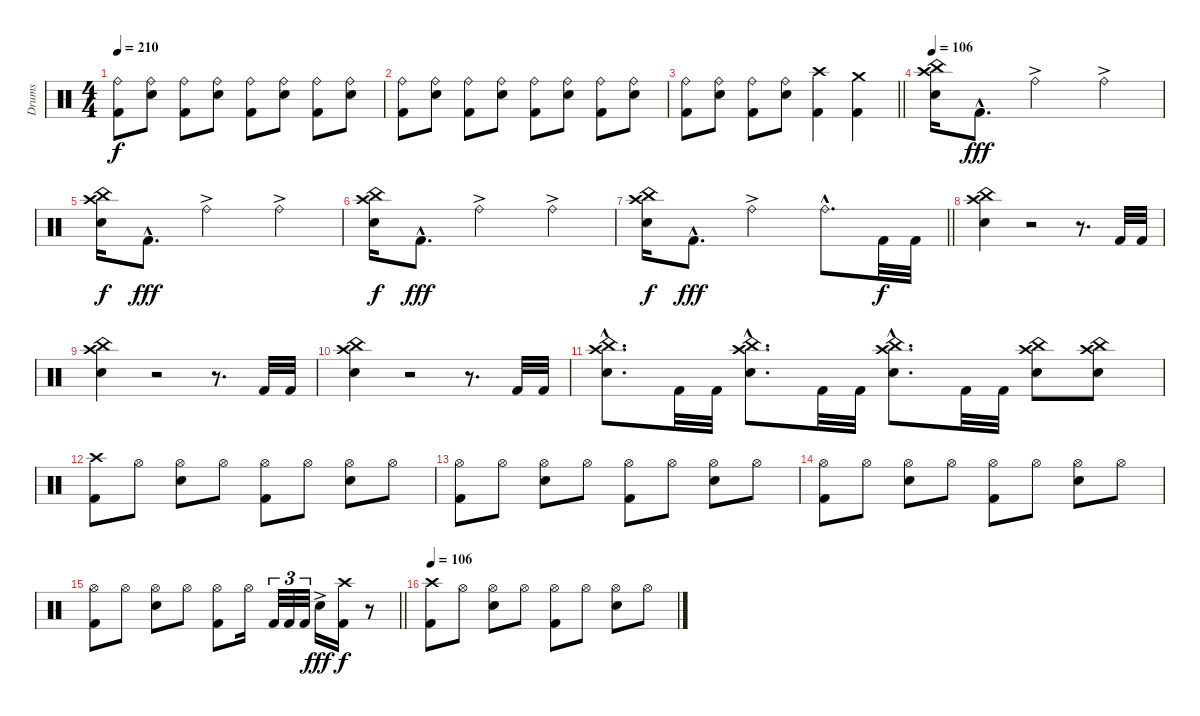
\track ("Drums" "Drums") {instrument percussion}
\staff {score}
\articulation defaults
\ts (4 4)
\tempo 210
\clef neutral
\ks c
("Ride (bell)" "Kick (hit) 2").8{dy f} ("Ride (bell)" "Snare (hit) 2").8 ("Ride (bell)" "Kick (hit) 2").8 ("Ride (bell)" "Snare (hit) 2").8 ("Ride (bell)" "Kick (hit) 2").8 ("Ride (bell)" "Snare (hit) 2").8 ("Ride (bell)" "Kick (hit) 2").8 ("Ride (bell)" "Snare (hit) 2").8 |
("Ride (bell)" "Kick (hit) 2").8 ("Ride (bell)" "Snare (hit) 2").8 ("Ride (bell)" "Kick (hit) 2").8 ("Ride (bell)" "Snare (hit) 2").8 ("Ride (bell)" "Kick (hit) 2").8 ("Ride (bell)" "Snare (hit) 2").8 ("Ride (bell)" "Kick (hit) 2").8 ("Ride (bell)" "Snare (hit) 2").8 |
\barLineRight lightlight
("Ride (bell)" "Kick (hit) 2").8 ("Ride (bell)" "Snare (hit) 2").8 ("Ride (bell)" "Kick (hit) 2").8 ("Ride (bell)" "Snare (hit) 2").8 ("Crash high (hit)" "Kick (hit) 2").4 ("Crash medium (hit)" "Kick (hit) 2").4 |
\tempo 106
("China (hit)" "Crash high (hit)" "Snare (hit) 2").16 "Kick (hit) 2"{hac}.8{d dy fff} "Ride (bell)"{ac}.2 "Ride (bell)"{ac}.4 |
("China (hit)" "Crash high (hit)" "Snare (hit) 2").16{dy f} "Kick (hit) 2"{hac}.8{d dy fff} "Ride (bell)"{ac}.2 "Ride (bell)"{ac}.4 |
("China (hit)" "Crash high (hit)" "Snare (hit) 2").16{dy f} "Kick (hit) 2"{hac}.8{d dy fff} "Ride (bell)"{ac}.2 "Ride (bell)"{ac}.4 |
\barLineRight lightlight
("China (hit)" "Crash high (hit)" "Snare (hit) 2").16{dy f} "Kick (hit) 2"{hac}.8{d dy fff} "Ride (bell)"{ac}.2 "Ride (bell)"{hac}.8{d} "Kick (hit) 2".32{dy f} "Kick (hit) 2".32 |
("China (hit)" "Crash high (hit)" "Snare (hit) 2").4 r.2 r.8{d} "Kick (hit) 2".32 "Kick (hit) 2".32 |
("China (hit)" "Crash high (hit)" "Snare (hit) 2").4 r.2 r.8{d} "Kick (hit) 2".32 "Kick (hit) 2".32 |
("China (hit)" "Crash high (hit)" "Snare (hit) 2").4 r.2 r.8{d} "Kick (hit) 2".32 "Kick (hit) 2".32 |
("China (hit)"{hac} "Crash high (hit)"{hac} "Snare (hit) 2"{hac}).8{d} "Kick (hit) 2".32 "Kick (hit) 2".32 ("China (hit)"{hac} "Crash high (hit)"{hac} "Snare (hit) 2"{hac}).8{d} "Kick (hit) 2".32 "Kick (hit) 2".32 ("China (hit)"{hac} "Crash high (hit)"{hac} "Snare (hit) 2"{hac}).8{d} "Kick (hit) 2".32 "Kick (hit) 2".32 ("China (hit)" "Crash high (hit)" "Snare (hit) 2").8 ("China (hit)" "Crash high (hit)" "Snare (hit) 2").8 |
("Crash high (hit)" "Kick (hit) 2").8 "Hi-Hat (open)".8 ("Hi-Hat (open)" "Snare (hit) 2").8 "Hi-Hat (open)".8 ("Hi-Hat (open)" "Kick (hit) 2").8 "Hi-Hat (open)".8 ("Hi-Hat (open)" "Snare (hit) 2").8 "Hi-Hat (open)".8 |
("Hi-Hat (open)" "Kick (hit) 2").8 "Hi-Hat (open)".8 ("Hi-Hat (open)" "Snare (hit) 2").8 "Hi-Hat (open)".8 ("Hi-Hat (open)" "Kick (hit) 2").8 "Hi-Hat (open)".8 ("Hi-Hat (open)" "Snare (hit) 2").8 "Hi-Hat (open)".8 |
("Hi-Hat (open)" "Kick (hit) 2").8 "Hi-Hat (open)".8 ("Hi-Hat (open)" "Snare (hit) 2").8 "Hi-Hat (open)".8 ("Hi-Hat (open)" "Kick (hit) 2").8 "Hi-Hat (open)".8 ("Hi-Hat (open)" "Snare (hit) 2").8 "Hi-Hat (open)".8 |
\barLineRight lightlight
("Hi-Hat (open)" "Kick (hit) 2").8 "Hi-Hat (open)".8 ("Hi-Hat (open)" "Snare (hit) 2").8 "Hi-Hat (open)".8 ("Hi-Hat (open)" "Kick (hit) 2").8 "Hi-Hat (open)".16 "Kick (hit) 2".32{tu (3 2)} "Kick (hit) 2".32{tu (3 2)} "Kick (hit) 2".32{tu (3 2)} "Snare (hit) 2"{ac}.16{dy fff} ("Crash high (hit)" "Kick (hit) 2").16{dy f} r.8{volume 0} |
\tempo 106
("Crash high (hit)" "Kick (hit) 2").8{volume 16} "Hi-Hat (open)".8 ("Hi-Hat (open)" "Snare (hit) 2").8 "Hi-Hat (open)".8 ("Hi-Hat (open)" "Kick (hit) 2").8 "Hi-Hat (open)".8 ("Hi-Hat (open)" "Snare (hit) 2").8 "Hi-Hat (open)".8
